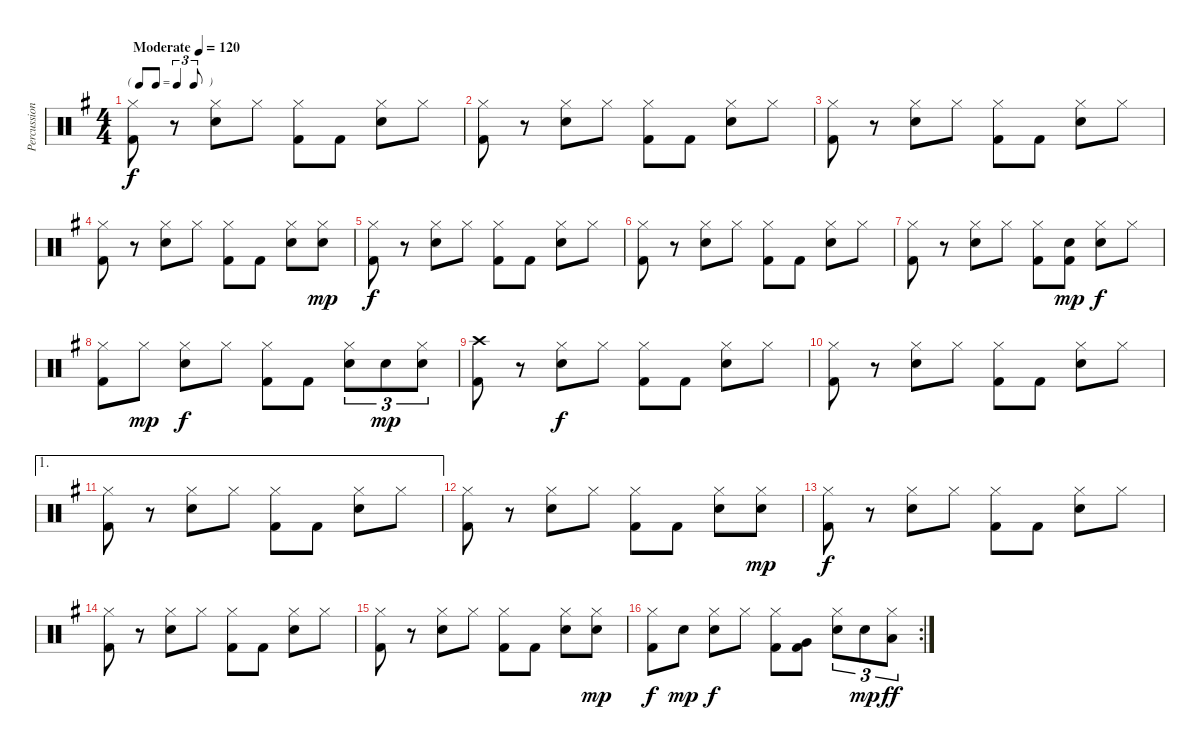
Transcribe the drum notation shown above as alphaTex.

\track ("Percussion" "Percussion") {instrument percussion}
\staff {score}
\articulation defaults
\ts (4 4)
\tf triplet8th
\tempo (120 "Moderate")
\clef neutral
\ks g
("Hi-Hat (closed)" "Kick (hit) 2").8{dy f} r.8 ("Hi-Hat (closed)" "Electric Snare (hit)").8 "Hi-Hat (closed)".8 ("Hi-Hat (closed)" "Kick (hit) 2").8 "Kick (hit) 2".8 ("Hi-Hat (closed)" "Electric Snare (hit)").8 "Hi-Hat (closed)".8 |
("Hi-Hat (closed)" "Kick (hit) 2").8 r.8 ("Hi-Hat (closed)" "Electric Snare (hit)").8 "Hi-Hat (closed)".8 ("Hi-Hat (closed)" "Kick (hit) 2").8 "Kick (hit) 2".8 ("Hi-Hat (closed)" "Electric Snare (hit)").8 "Hi-Hat (closed)".8 |
("Hi-Hat (closed)" "Kick (hit) 2").8 r.8 ("Hi-Hat (closed)" "Electric Snare (hit)").8 "Hi-Hat (closed)".8 ("Hi-Hat (closed)" "Kick (hit) 2").8 "Kick (hit) 2".8 ("Hi-Hat (closed)" "Electric Snare (hit)").8 "Hi-Hat (closed)".8 |
("Hi-Hat (closed)" "Kick (hit) 2").8 r.8 ("Hi-Hat (closed)" "Electric Snare (hit)").8 "Hi-Hat (closed)".8 ("Hi-Hat (closed)" "Kick (hit) 2").8 "Kick (hit) 2".8 ("Hi-Hat (closed)" "Electric Snare (hit)").8 ("Hi-Hat (closed)" "Electric Snare (hit)").8{dy mp} |
("Hi-Hat (closed)" "Kick (hit) 2").8{dy f} r.8 ("Hi-Hat (closed)" "Electric Snare (hit)").8 "Hi-Hat (closed)".8 ("Hi-Hat (closed)" "Kick (hit) 2").8 "Kick (hit) 2".8 ("Hi-Hat (closed)" "Electric Snare (hit)").8 "Hi-Hat (closed)".8 |
("Hi-Hat (closed)" "Kick (hit) 2").8 r.8 ("Hi-Hat (closed)" "Electric Snare (hit)").8 "Hi-Hat (closed)".8 ("Hi-Hat (closed)" "Kick (hit) 2").8 "Kick (hit) 2".8 ("Hi-Hat (closed)" "Electric Snare (hit)").8 "Hi-Hat (closed)".8 |
("Hi-Hat (closed)" "Kick (hit) 2").8 r.8 ("Hi-Hat (closed)" "Electric Snare (hit)").8 "Hi-Hat (closed)".8 ("Hi-Hat (closed)" "Kick (hit) 2").8 ("Electric Snare (hit)" "Kick (hit) 2").8{dy mp} ("Hi-Hat (closed)" "Electric Snare (hit)").8{dy f} "Hi-Hat (closed)".8 |
("Hi-Hat (closed)" "Kick (hit) 2").8 "Hi-Hat (closed)".8{dy mp} ("Hi-Hat (closed)" "Electric Snare (hit)").8{dy f} "Hi-Hat (closed)".8 ("Hi-Hat (closed)" "Kick (hit) 2").8 "Kick (hit) 2".8 ("Hi-Hat (closed)" "Electric Snare (hit)").8{tu (3 2)} "Electric Snare (hit)".8{tu (3 2) dy mp} ("Hi-Hat (closed)" "Electric Snare (hit)").8{tu (3 2)} |
("Crash high (hit)" "Kick (hit) 2").8 r.8 ("Hi-Hat (closed)" "Electric Snare (hit)").8{dy f} "Hi-Hat (closed)".8 ("Hi-Hat (closed)" "Kick (hit) 2").8 "Kick (hit) 2".8 ("Hi-Hat (closed)" "Electric Snare (hit)").8 "Hi-Hat (closed)".8 |
("Hi-Hat (closed)" "Kick (hit) 2").8 r.8 ("Hi-Hat (closed)" "Electric Snare (hit)").8 "Hi-Hat (closed)".8 ("Hi-Hat (closed)" "Kick (hit) 2").8 "Kick (hit) 2".8 ("Hi-Hat (closed)" "Electric Snare (hit)").8 "Hi-Hat (closed)".8 |
\ae 1
("Hi-Hat (closed)" "Kick (hit) 2").8 r.8 ("Hi-Hat (closed)" "Electric Snare (hit)").8 "Hi-Hat (closed)".8 ("Hi-Hat (closed)" "Kick (hit) 2").8 "Kick (hit) 2".8 ("Hi-Hat (closed)" "Electric Snare (hit)").8 "Hi-Hat (closed)".8 |
("Hi-Hat (closed)" "Kick (hit) 2").8 r.8 ("Hi-Hat (closed)" "Electric Snare (hit)").8 "Hi-Hat (closed)".8 ("Hi-Hat (closed)" "Kick (hit) 2").8 "Kick (hit) 2".8 ("Hi-Hat (closed)" "Electric Snare (hit)").8 ("Hi-Hat (closed)" "Electric Snare (hit)").8{dy mp} |
("Hi-Hat (closed)" "Kick (hit) 2").8{dy f} r.8 ("Hi-Hat (closed)" "Electric Snare (hit)").8 "Hi-Hat (closed)".8 ("Hi-Hat (closed)" "Kick (hit) 2").8 "Kick (hit) 2".8 ("Hi-Hat (closed)" "Electric Snare (hit)").8 "Hi-Hat (closed)".8 |
("Hi-Hat (closed)" "Kick (hit) 2").8 r.8 ("Hi-Hat (closed)" "Electric Snare (hit)").8 "Hi-Hat (closed)".8 ("Hi-Hat (closed)" "Kick (hit) 2").8 "Kick (hit) 2".8 ("Hi-Hat (closed)" "Electric Snare (hit)").8 "Hi-Hat (closed)".8 |
("Hi-Hat (closed)" "Kick (hit) 2").8 r.8 ("Hi-Hat (closed)" "Electric Snare (hit)").8 "Hi-Hat (closed)".8 ("Hi-Hat (closed)" "Kick (hit) 2").8 "Kick (hit) 2".8 ("Hi-Hat (closed)" "Electric Snare (hit)").8 ("Hi-Hat (closed)" "Electric Snare (hit)").8{dy mp} |
\rc 2
("Hi-Hat (closed)" "Kick (hit) 2").8{dy f} "Electric Snare (hit)".8{dy mp} ("Hi-Hat (closed)" "Electric Snare (hit)").8{dy f} "Hi-Hat (closed)".8 ("Hi-Hat (closed)" "Kick (hit) 2").8 ("Very Low Tom (hit)" "Kick (hit) 2").8 ("Hi-Hat (closed)" "Electric Snare (hit)").8{tu (3 2)} "Electric Snare (hit)".8{tu (3 2) dy mp} ("Hi-Hat (closed)" "Low Tom (hit)").8{tu (3 2) dy ff}
